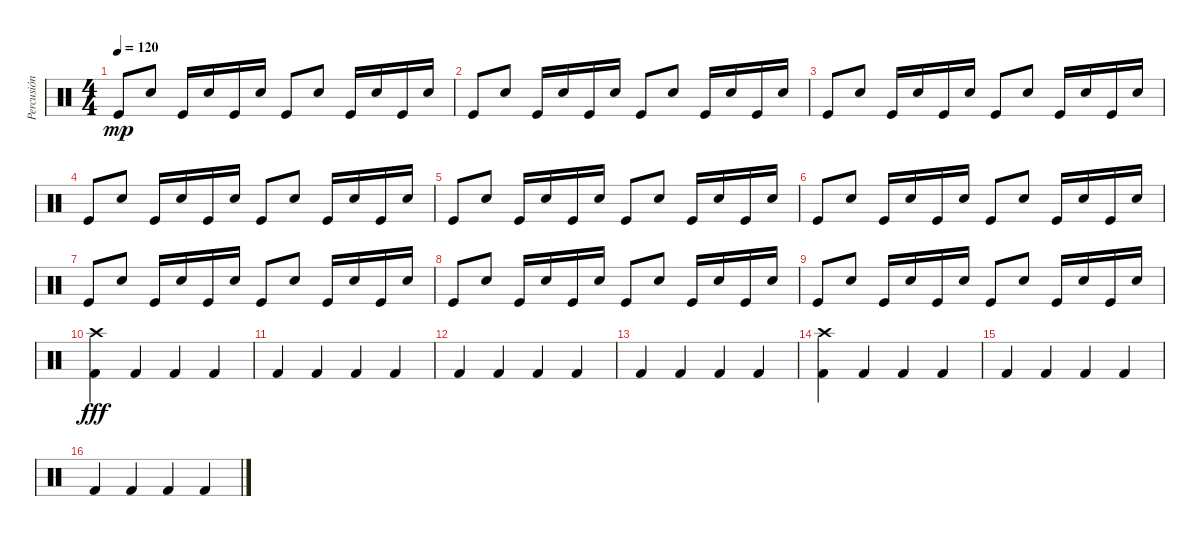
\track ("Percusión" "Percusión") {instrument percussion}
\staff {score}
\articulation defaults
\ts (4 4)
\tempo 120
\clef neutral
\ks c "Kick (hit)".8{dy mp} "Electric Snare (hit)".8 "Kick (hit)".16 "Electric Snare (hit)".16 "Kick (hit)".16 "Electric Snare (hit)".16 "Kick (hit)".8 "Electric Snare (hit)".8 "Kick (hit)".16 "Electric Snare (hit)".16 "Kick (hit)".16 "Electric Snare (hit)".16
|
"Kick (hit)".8 "Electric Snare (hit)".8 "Kick (hit)".16 "Electric Snare (hit)".16 "Kick (hit)".16 "Electric Snare (hit)".16 "Kick (hit)".8 "Electric Snare (hit)".8 "Kick (hit)".16 "Electric Snare (hit)".16 "Kick (hit)".16 "Electric Snare (hit)".16 |
"Kick (hit)".8 "Electric Snare (hit)".8 "Kick (hit)".16 "Electric Snare (hit)".16 "Kick (hit)".16 "Electric Snare (hit)".16 "Kick (hit)".8 "Electric Snare (hit)".8 "Kick (hit)".16 "Electric Snare (hit)".16 "Kick (hit)".16 "Electric Snare (hit)".16 |
"Kick (hit)".8 "Electric Snare (hit)".8 "Kick (hit)".16 "Electric Snare (hit)".16 "Kick (hit)".16 "Electric Snare (hit)".16 "Kick (hit)".8 "Electric Snare (hit)".8 "Kick (hit)".16 "Electric Snare (hit)".16 "Kick (hit)".16 "Electric Snare (hit)".16 |
"Kick (hit)".8 "Electric Snare (hit)".8 "Kick (hit)".16 "Electric Snare (hit)".16 "Kick (hit)".16 "Electric Snare (hit)".16 "Kick (hit)".8 "Electric Snare (hit)".8 "Kick (hit)".16 "Electric Snare (hit)".16 "Kick (hit)".16 "Electric Snare (hit)".16 |
"Kick (hit)".8 "Electric Snare (hit)".8 "Kick (hit)".16 "Electric Snare (hit)".16 "Kick (hit)".16 "Electric Snare (hit)".16 "Kick (hit)".8 "Electric Snare (hit)".8 "Kick (hit)".16 "Electric Snare (hit)".16 "Kick (hit)".16 "Electric Snare (hit)".16 |
"Kick (hit)".8 "Electric Snare (hit)".8 "Kick (hit)".16 "Electric Snare (hit)".16 "Kick (hit)".16 "Electric Snare (hit)".16 "Kick (hit)".8 "Electric Snare (hit)".8 "Kick (hit)".16 "Electric Snare (hit)".16 "Kick (hit)".16 "Electric Snare (hit)".16 |
"Kick (hit)".8 "Electric Snare (hit)".8 "Kick (hit)".16 "Electric Snare (hit)".16 "Kick (hit)".16 "Electric Snare (hit)".16 "Kick (hit)".8 "Electric Snare (hit)".8 "Kick (hit)".16 "Electric Snare (hit)".16 "Kick (hit)".16 "Electric Snare (hit)".16 |
"Kick (hit)".8 "Electric Snare (hit)".8 "Kick (hit)".16 "Electric Snare (hit)".16 "Kick (hit)".16 "Electric Snare (hit)".16 "Kick (hit)".8 "Electric Snare (hit)".8 "Kick (hit)".16 "Electric Snare (hit)".16 "Kick (hit)".16 "Electric Snare (hit)".16 |
("Crash high (hit)" "Kick (hit) 2").4{dy fff} "Kick (hit) 2".4 "Kick (hit) 2".4 "Kick (hit) 2".4 |
"Kick (hit) 2".4 "Kick (hit) 2".4 "Kick (hit) 2".4 "Kick (hit) 2".4 |
"Kick (hit) 2".4 "Kick (hit) 2".4 "Kick (hit) 2".4 "Kick (hit) 2".4 |
"Kick (hit) 2".4 "Kick (hit) 2".4 "Kick (hit) 2".4 "Kick (hit) 2".4 |
("Crash high (hit)" "Kick (hit) 2").4 "Kick (hit) 2".4 "Kick (hit) 2".4 "Kick (hit) 2".4 |
"Kick (hit) 2".4 "Kick (hit) 2".4 "Kick (hit) 2".4 "Kick (hit) 2".4 |
"Kick (hit) 2".4 "Kick (hit) 2".4 "Kick (hit) 2".4 "Kick (hit) 2".4
